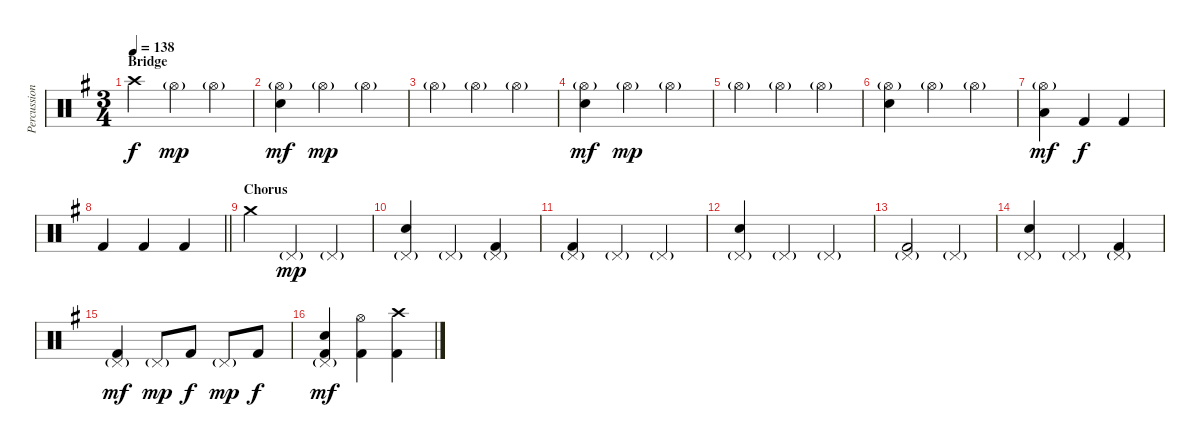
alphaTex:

\track ("Percussion (Thomen Stauch)" "Percussion") {instrument percussion}
\staff {score}
\articulation defaults
\ts (3 4)
\section ("" "Bridge")
\tempo 138
\clef neutral
\ks eminor "Crash high (hit)".4{dy f} "Hi-Hat (open)"{g}.4{dy mp} "Hi-Hat (open)"{g}.4
|
("Hi-Hat (open)"{g} "Snare (hit) 2").4{dy mf} "Hi-Hat (open)"{g}.4{dy mp} "Hi-Hat (open)"{g}.4 |
"Hi-Hat (open)"{g}.4 "Hi-Hat (open)"{g}.4 "Hi-Hat (open)"{g}.4 |
("Hi-Hat (open)"{g} "Snare (hit) 2").4{dy mf} "Hi-Hat (open)"{g}.4{dy mp} "Hi-Hat (open)"{g}.4 |
"Hi-Hat (open)"{g}.4 "Hi-Hat (open)"{g}.4 "Hi-Hat (open)"{g}.4 |
("Hi-Hat (open)"{g} "Snare (hit) 2").4 "Hi-Hat (open)"{g}.4 "Hi-Hat (open)"{g}.4 |
("Hi-Hat (open)"{g} "Low Floor Tom (hit)").4{dy mf} "Kick (hit) 2".4{dy f} "Kick (hit) 2".4 |
\barLineRight lightlight "Kick (hit) 2".4 "Kick (hit) 2".4 "Kick (hit) 2".4
|
\section ("" "Chorus")
"Crash medium (hit)".4 "Pedal Hi-Hat (hit)"{g}.4{dy mp} "Pedal Hi-Hat (hit)"{g}.4 |
("Pedal Hi-Hat (hit)"{g} "Snare (hit) 2").4 "Pedal Hi-Hat (hit)"{g}.4 ("Pedal Hi-Hat (hit)"{g} "Kick (hit) 2").4 |
("Pedal Hi-Hat (hit)"{g} "Kick (hit) 2").4 "Pedal Hi-Hat (hit)"{g}.4 "Pedal Hi-Hat (hit)"{g}.4 |
("Pedal Hi-Hat (hit)"{g} "Snare (hit) 2").4 "Pedal Hi-Hat (hit)"{g}.4 "Pedal Hi-Hat (hit)"{g}.4 |
("Pedal Hi-Hat (hit)"{g} "Kick (hit) 2").2 "Pedal Hi-Hat (hit)"{g}.4 |
("Pedal Hi-Hat (hit)"{g} "Snare (hit) 2").4 "Pedal Hi-Hat (hit)"{g}.4 ("Pedal Hi-Hat (hit)"{g} "Kick (hit) 2").4 |
("Pedal Hi-Hat (hit)"{g} "Kick (hit) 2").4{dy mf} "Pedal Hi-Hat (hit)"{g}.8{dy mp} "Kick (hit) 2".8{dy f} "Pedal Hi-Hat (hit)"{g}.8{dy mp} "Kick (hit) 2".8{dy f} |
("Pedal Hi-Hat (hit)"{g} "Snare (hit) 2" "Kick (hit) 2").4{dy mf} ("Hi-Hat (open)" "Kick (hit) 2").4 ("Crash high (hit)" "Kick (hit) 2").4
